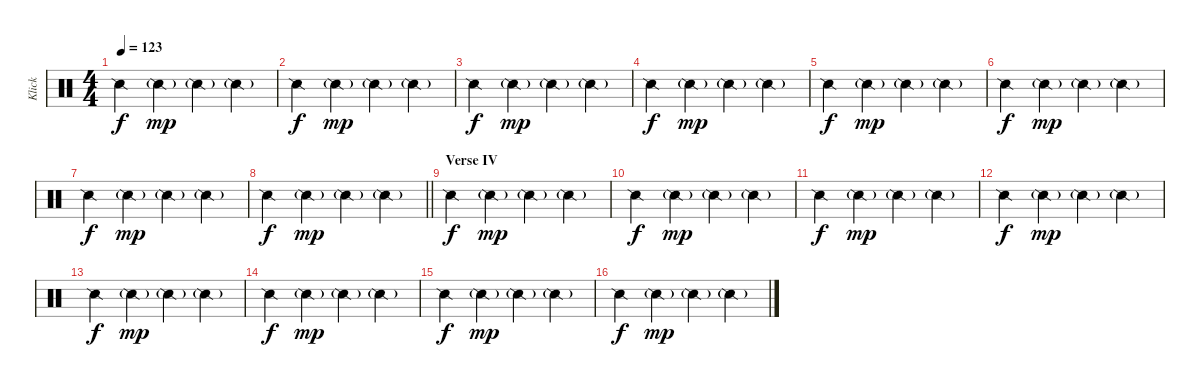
\track ("Klick" "Klick") {instrument percussion}
\staff {score}
\articulation defaults
\ts (4 4)
\tempo 123
\clef neutral
\ks c "Snare (side stick) 2".4{dy f} "Snare (side stick) 2"{g}.4{dy mp} "Snare (side stick) 2"{g}.4 "Snare (side stick) 2"{g}.4
|
"Snare (side stick) 2".4{dy f} "Snare (side stick) 2"{g}.4{dy mp} "Snare (side stick) 2"{g}.4 "Snare (side stick) 2"{g}.4 |
"Snare (side stick) 2".4{dy f} "Snare (side stick) 2"{g}.4{dy mp} "Snare (side stick) 2"{g}.4 "Snare (side stick) 2"{g}.4 |
"Snare (side stick) 2".4{dy f} "Snare (side stick) 2"{g}.4{dy mp} "Snare (side stick) 2"{g}.4 "Snare (side stick) 2"{g}.4 |
"Snare (side stick) 2".4{dy f} "Snare (side stick) 2"{g}.4{dy mp} "Snare (side stick) 2"{g}.4 "Snare (side stick) 2"{g}.4 |
"Snare (side stick) 2".4{dy f} "Snare (side stick) 2"{g}.4{dy mp} "Snare (side stick) 2"{g}.4 "Snare (side stick) 2"{g}.4 |
"Snare (side stick) 2".4{dy f} "Snare (side stick) 2"{g}.4{dy mp} "Snare (side stick) 2"{g}.4 "Snare (side stick) 2"{g}.4 |
\barLineRight lightlight "Snare (side stick) 2".4{dy f} "Snare (side stick) 2"{g}.4{dy mp} "Snare (side stick) 2"{g}.4 "Snare (side stick) 2"{g}.4
|
\section ("" "Verse IV")
"Snare (side stick) 2".4{dy f} "Snare (side stick) 2"{g}.4{dy mp} "Snare (side stick) 2"{g}.4 "Snare (side stick) 2"{g}.4 |
"Snare (side stick) 2".4{dy f} "Snare (side stick) 2"{g}.4{dy mp} "Snare (side stick) 2"{g}.4 "Snare (side stick) 2"{g}.4 |
"Snare (side stick) 2".4{dy f} "Snare (side stick) 2"{g}.4{dy mp} "Snare (side stick) 2"{g}.4 "Snare (side stick) 2"{g}.4 |
"Snare (side stick) 2".4{dy f} "Snare (side stick) 2"{g}.4{dy mp} "Snare (side stick) 2"{g}.4 "Snare (side stick) 2"{g}.4 |
"Snare (side stick) 2".4{dy f} "Snare (side stick) 2"{g}.4{dy mp} "Snare (side stick) 2"{g}.4 "Snare (side stick) 2"{g}.4 |
"Snare (side stick) 2".4{dy f} "Snare (side stick) 2"{g}.4{dy mp} "Snare (side stick) 2"{g}.4 "Snare (side stick) 2"{g}.4 |
"Snare (side stick) 2".4{dy f} "Snare (side stick) 2"{g}.4{dy mp} "Snare (side stick) 2"{g}.4 "Snare (side stick) 2"{g}.4 |
"Snare (side stick) 2".4{dy f} "Snare (side stick) 2"{g}.4{dy mp} "Snare (side stick) 2"{g}.4 "Snare (side stick) 2"{g}.4
